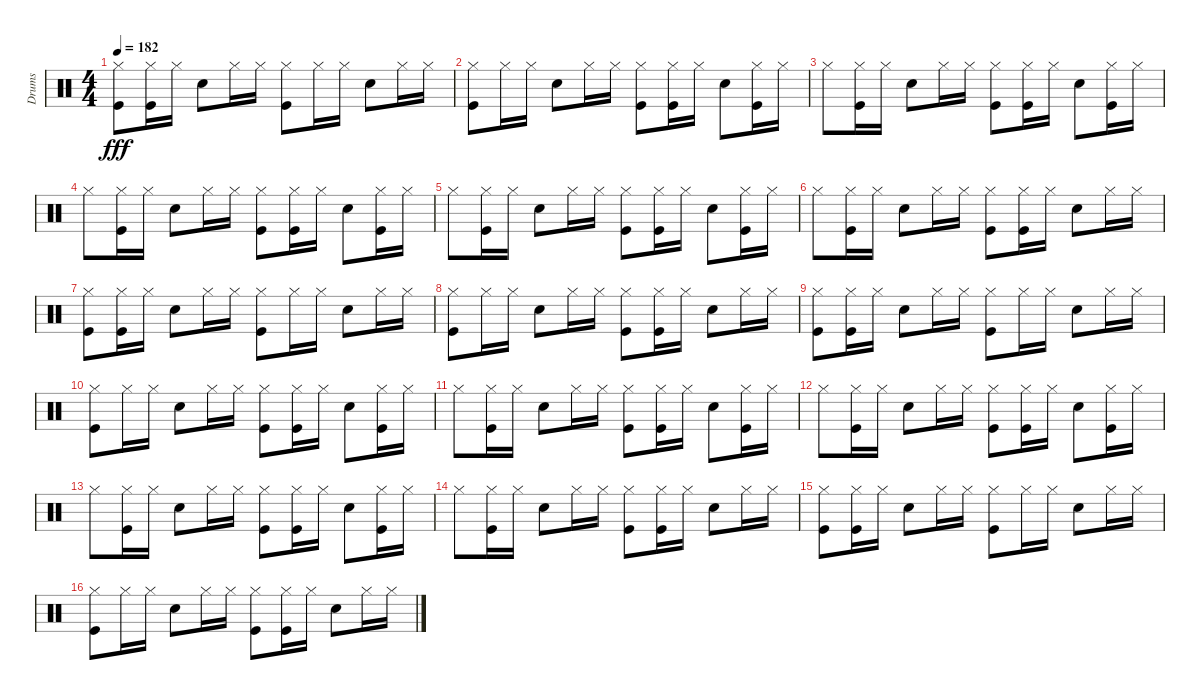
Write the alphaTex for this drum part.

\track ("Drums" "Drums") {instrument percussion}
\staff {score}
\articulation defaults
\ts (4 4)
\tempo 182
\clef neutral
\ks c
("Hi-Hat (closed)" "Kick (hit)").8{dy fff} ("Hi-Hat (closed)" "Kick (hit)").16 "Hi-Hat (closed)".16 "Snare (hit) 2".8 "Hi-Hat (closed)".16 "Hi-Hat (closed)".16 ("Hi-Hat (closed)" "Kick (hit)").8 "Hi-Hat (closed)".16 "Hi-Hat (closed)".16 "Snare (hit) 2".8 "Hi-Hat (closed)".16 "Hi-Hat (closed)".16 |
("Hi-Hat (closed)" "Kick (hit)").8 "Hi-Hat (closed)".16 "Hi-Hat (closed)".16 "Snare (hit) 2".8 "Hi-Hat (closed)".16 "Hi-Hat (closed)".16 ("Hi-Hat (closed)" "Kick (hit)").8 ("Hi-Hat (closed)" "Kick (hit)").16 "Hi-Hat (closed)".16 "Snare (hit) 2".8 ("Hi-Hat (closed)" "Kick (hit)").16 "Hi-Hat (closed)".16 |
"Hi-Hat (closed)".8 ("Hi-Hat (closed)" "Kick (hit)").16 "Hi-Hat (closed)".16 "Snare (hit) 2".8 "Hi-Hat (closed)".16 "Hi-Hat (closed)".16 ("Hi-Hat (closed)" "Kick (hit)").8 ("Hi-Hat (closed)" "Kick (hit)").16 "Hi-Hat (closed)".16 "Snare (hit) 2".8 ("Hi-Hat (closed)" "Kick (hit)").16 "Hi-Hat (closed)".16 |
"Hi-Hat (closed)".8 ("Hi-Hat (closed)" "Kick (hit)").16 "Hi-Hat (closed)".16 "Snare (hit) 2".8 "Hi-Hat (closed)".16 "Hi-Hat (closed)".16 ("Hi-Hat (closed)" "Kick (hit)").8 ("Hi-Hat (closed)" "Kick (hit)").16 "Hi-Hat (closed)".16 "Snare (hit) 2".8 ("Hi-Hat (closed)" "Kick (hit)").16 "Hi-Hat (closed)".16 |
"Hi-Hat (closed)".8 ("Hi-Hat (closed)" "Kick (hit)").16 "Hi-Hat (closed)".16 "Snare (hit) 2".8 "Hi-Hat (closed)".16 "Hi-Hat (closed)".16 ("Hi-Hat (closed)" "Kick (hit)").8 ("Hi-Hat (closed)" "Kick (hit)").16 "Hi-Hat (closed)".16 "Snare (hit) 2".8 ("Hi-Hat (closed)" "Kick (hit)").16 "Hi-Hat (closed)".16 |
"Hi-Hat (closed)".8 ("Hi-Hat (closed)" "Kick (hit)").16 "Hi-Hat (closed)".16 "Snare (hit) 2".8 "Hi-Hat (closed)".16 "Hi-Hat (closed)".16 ("Hi-Hat (closed)" "Kick (hit)").8 ("Hi-Hat (closed)" "Kick (hit)").16 "Hi-Hat (closed)".16 "Snare (hit) 2".8 "Hi-Hat (closed)".16 "Hi-Hat (closed)".16 |
("Hi-Hat (closed)" "Kick (hit)").8 ("Hi-Hat (closed)" "Kick (hit)").16 "Hi-Hat (closed)".16 "Snare (hit) 2".8 "Hi-Hat (closed)".16 "Hi-Hat (closed)".16 ("Hi-Hat (closed)" "Kick (hit)").8 "Hi-Hat (closed)".16 "Hi-Hat (closed)".16 "Snare (hit) 2".8 "Hi-Hat (closed)".16 "Hi-Hat (closed)".16 |
("Hi-Hat (closed)" "Kick (hit)").8 "Hi-Hat (closed)".16 "Hi-Hat (closed)".16 "Snare (hit) 2".8 "Hi-Hat (closed)".16 "Hi-Hat (closed)".16 ("Hi-Hat (closed)" "Kick (hit)").8 ("Hi-Hat (closed)" "Kick (hit)").16 "Hi-Hat (closed)".16 "Snare (hit) 2".8 "Hi-Hat (closed)".16 "Hi-Hat (closed)".16 |
("Hi-Hat (closed)" "Kick (hit)").8 ("Hi-Hat (closed)" "Kick (hit)").16 "Hi-Hat (closed)".16 "Snare (hit) 2".8 "Hi-Hat (closed)".16 "Hi-Hat (closed)".16 ("Hi-Hat (closed)" "Kick (hit)").8 "Hi-Hat (closed)".16 "Hi-Hat (closed)".16 "Snare (hit) 2".8 "Hi-Hat (closed)".16 "Hi-Hat (closed)".16 |
("Hi-Hat (closed)" "Kick (hit)").8 "Hi-Hat (closed)".16 "Hi-Hat (closed)".16 "Snare (hit) 2".8 "Hi-Hat (closed)".16 "Hi-Hat (closed)".16 ("Hi-Hat (closed)" "Kick (hit)").8 ("Hi-Hat (closed)" "Kick (hit)").16 "Hi-Hat (closed)".16 "Snare (hit) 2".8 ("Hi-Hat (closed)" "Kick (hit)").16 "Hi-Hat (closed)".16 |
"Hi-Hat (closed)".8 ("Hi-Hat (closed)" "Kick (hit)").16 "Hi-Hat (closed)".16 "Snare (hit) 2".8 "Hi-Hat (closed)".16 "Hi-Hat (closed)".16 ("Hi-Hat (closed)" "Kick (hit)").8 ("Hi-Hat (closed)" "Kick (hit)").16 "Hi-Hat (closed)".16 "Snare (hit) 2".8 ("Hi-Hat (closed)" "Kick (hit)").16 "Hi-Hat (closed)".16 |
"Hi-Hat (closed)".8 ("Hi-Hat (closed)" "Kick (hit)").16 "Hi-Hat (closed)".16 "Snare (hit) 2".8 "Hi-Hat (closed)".16 "Hi-Hat (closed)".16 ("Hi-Hat (closed)" "Kick (hit)").8 ("Hi-Hat (closed)" "Kick (hit)").16 "Hi-Hat (closed)".16 "Snare (hit) 2".8 ("Hi-Hat (closed)" "Kick (hit)").16 "Hi-Hat (closed)".16 |
"Hi-Hat (closed)".8 ("Hi-Hat (closed)" "Kick (hit)").16 "Hi-Hat (closed)".16 "Snare (hit) 2".8 "Hi-Hat (closed)".16 "Hi-Hat (closed)".16 ("Hi-Hat (closed)" "Kick (hit)").8 ("Hi-Hat (closed)" "Kick (hit)").16 "Hi-Hat (closed)".16 "Snare (hit) 2".8 ("Hi-Hat (closed)" "Kick (hit)").16 "Hi-Hat (closed)".16 |
"Hi-Hat (closed)".8 ("Hi-Hat (closed)" "Kick (hit)").16 "Hi-Hat (closed)".16 "Snare (hit) 2".8 "Hi-Hat (closed)".16 "Hi-Hat (closed)".16 ("Hi-Hat (closed)" "Kick (hit)").8 ("Hi-Hat (closed)" "Kick (hit)").16 "Hi-Hat (closed)".16 "Snare (hit) 2".8 "Hi-Hat (closed)".16 "Hi-Hat (closed)".16 |
("Hi-Hat (closed)" "Kick (hit)").8 ("Hi-Hat (closed)" "Kick (hit)").16 "Hi-Hat (closed)".16 "Snare (hit) 2".8 "Hi-Hat (closed)".16 "Hi-Hat (closed)".16 ("Hi-Hat (closed)" "Kick (hit)").8 "Hi-Hat (closed)".16 "Hi-Hat (closed)".16 "Snare (hit) 2".8 "Hi-Hat (closed)".16 "Hi-Hat (closed)".16 |
("Hi-Hat (closed)" "Kick (hit)").8 "Hi-Hat (closed)".16 "Hi-Hat (closed)".16 "Snare (hit) 2".8 "Hi-Hat (closed)".16 "Hi-Hat (closed)".16 ("Hi-Hat (closed)" "Kick (hit)").8 ("Hi-Hat (closed)" "Kick (hit)").16 "Hi-Hat (closed)".16 "Snare (hit) 2".8 "Hi-Hat (closed)".16 "Hi-Hat (closed)".16
